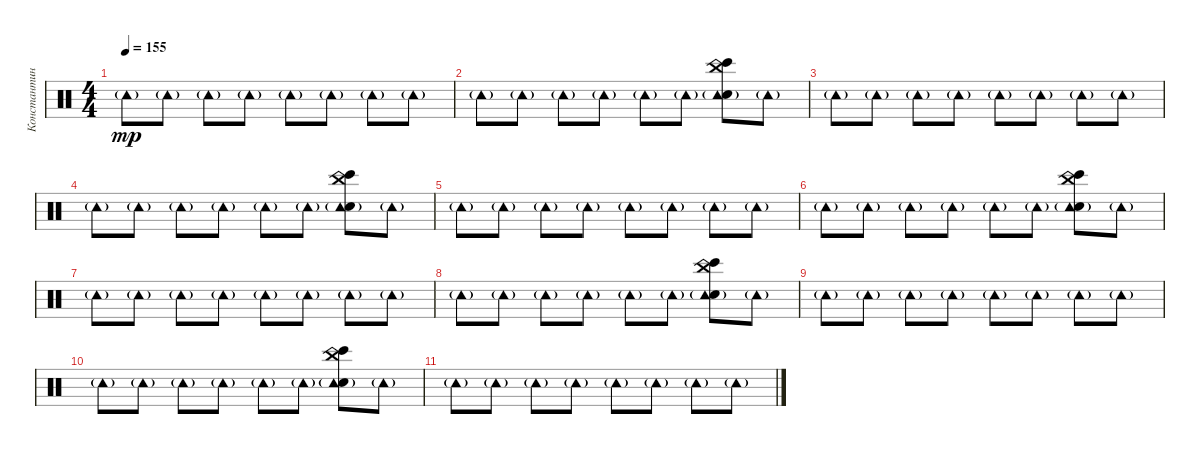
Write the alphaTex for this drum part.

\track ("Константин Бекрев" "Константин") {instrument percussion}
\staff {score}
\articulation defaults
\ts (4 4)
\tempo 155
\clef neutral
\ks c "Tambourine (hit)"{g}.8{dy mp} "Tambourine (hit)"{g}.8 "Tambourine (hit)"{g}.8 "Tambourine (hit)"{g}.8 "Tambourine (hit)"{g}.8 "Tambourine (hit)"{g}.8 "Tambourine (hit)"{g}.8 "Tambourine (hit)"{g}.8
|
"Tambourine (hit)"{g}.8 "Tambourine (hit)"{g}.8 "Tambourine (hit)"{g}.8 "Tambourine (hit)"{g}.8 "Tambourine (hit)"{g}.8 "Tambourine (hit)"{g}.8 ("China (hit)" "Hand Clap (hit)" "Bongo High (hit)" "Tambourine (hit)"{g}).8 "Tambourine (hit)"{g}.8 |
"Tambourine (hit)"{g}.8 "Tambourine (hit)"{g}.8 "Tambourine (hit)"{g}.8 "Tambourine (hit)"{g}.8 "Tambourine (hit)"{g}.8 "Tambourine (hit)"{g}.8 "Tambourine (hit)"{g}.8 "Tambourine (hit)"{g}.8 |
"Tambourine (hit)"{g}.8 "Tambourine (hit)"{g}.8 "Tambourine (hit)"{g}.8 "Tambourine (hit)"{g}.8 "Tambourine (hit)"{g}.8 "Tambourine (hit)"{g}.8 ("China (hit)" "Hand Clap (hit)" "Bongo High (hit)" "Tambourine (hit)"{g}).8 "Tambourine (hit)"{g}.8 |
"Tambourine (hit)"{g}.8 "Tambourine (hit)"{g}.8 "Tambourine (hit)"{g}.8 "Tambourine (hit)"{g}.8 "Tambourine (hit)"{g}.8 "Tambourine (hit)"{g}.8 "Tambourine (hit)"{g}.8 "Tambourine (hit)"{g}.8 |
"Tambourine (hit)"{g}.8 "Tambourine (hit)"{g}.8 "Tambourine (hit)"{g}.8 "Tambourine (hit)"{g}.8 "Tambourine (hit)"{g}.8 "Tambourine (hit)"{g}.8 ("China (hit)" "Hand Clap (hit)" "Bongo High (hit)" "Tambourine (hit)"{g}).8 "Tambourine (hit)"{g}.8 |
"Tambourine (hit)"{g}.8 "Tambourine (hit)"{g}.8 "Tambourine (hit)"{g}.8 "Tambourine (hit)"{g}.8 "Tambourine (hit)"{g}.8 "Tambourine (hit)"{g}.8 "Tambourine (hit)"{g}.8 "Tambourine (hit)"{g}.8 |
"Tambourine (hit)"{g}.8 "Tambourine (hit)"{g}.8 "Tambourine (hit)"{g}.8 "Tambourine (hit)"{g}.8 "Tambourine (hit)"{g}.8 "Tambourine (hit)"{g}.8 ("China (hit)" "Hand Clap (hit)" "Bongo High (hit)" "Tambourine (hit)"{g}).8 "Tambourine (hit)"{g}.8 |
"Tambourine (hit)"{g}.8 "Tambourine (hit)"{g}.8 "Tambourine (hit)"{g}.8 "Tambourine (hit)"{g}.8 "Tambourine (hit)"{g}.8 "Tambourine (hit)"{g}.8 "Tambourine (hit)"{g}.8 "Tambourine (hit)"{g}.8 |
"Tambourine (hit)"{g}.8 "Tambourine (hit)"{g}.8 "Tambourine (hit)"{g}.8 "Tambourine (hit)"{g}.8 "Tambourine (hit)"{g}.8 "Tambourine (hit)"{g}.8 ("China (hit)" "Hand Clap (hit)" "Bongo High (hit)" "Tambourine (hit)"{g}).8 "Tambourine (hit)"{g}.8 |
"Tambourine (hit)"{g}.8 "Tambourine (hit)"{g}.8 "Tambourine (hit)"{g}.8 "Tambourine (hit)"{g}.8 "Tambourine (hit)"{g}.8 "Tambourine (hit)"{g}.8 "Tambourine (hit)"{g}.8 "Tambourine (hit)"{g}.8
